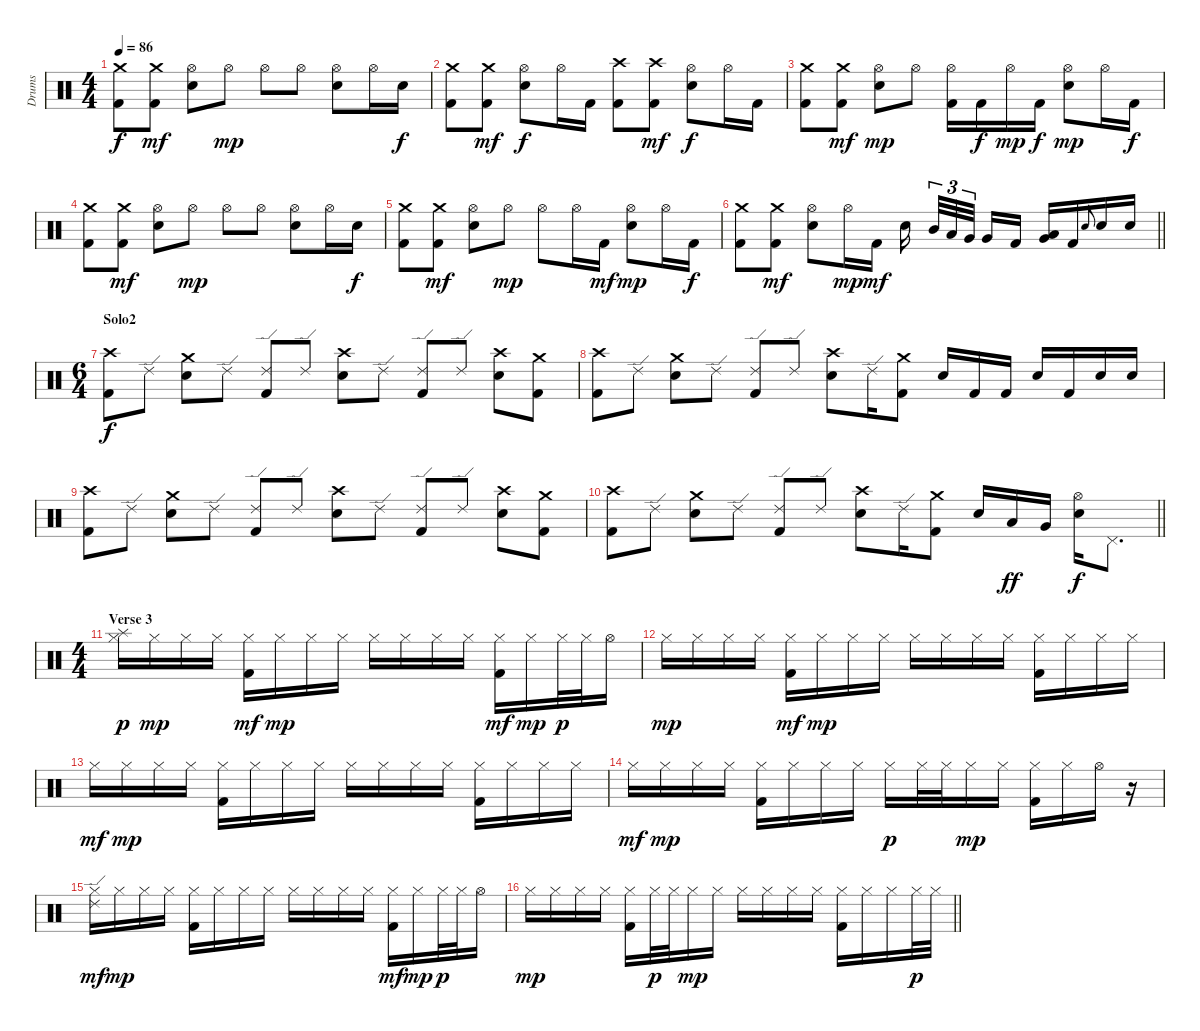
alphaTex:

\track ("Drums" "Drums") {instrument percussion}
\staff {score}
\articulation defaults
\ts (4 4)
\tempo 86
\clef neutral
\ks c
("Crash medium (hit)" "Kick (hit) 2").8{dy f} ("Crash medium (hit)" "Kick (hit) 2").8{dy mf} ("Hi-Hat (open)" "Electric Snare (hit)").8 "Hi-Hat (open)".8{dy mp} "Hi-Hat (open)".8 "Hi-Hat (open)".8 ("Hi-Hat (open)" "Electric Snare (hit)").8 "Hi-Hat (open)".16 "Electric Snare (hit)".16{dy f} |
("Crash medium (hit)" "Kick (hit) 2").8 ("Crash medium (hit)" "Kick (hit) 2").8{dy mf} ("Hi-Hat (open)" "Electric Snare (hit)").8{dy f} "Hi-Hat (open)".16 "Kick (hit) 2".16 ("Crash high (hit)" "Kick (hit) 2").8 ("Crash high (hit)" "Kick (hit) 2").8{dy mf} ("Hi-Hat (open)" "Electric Snare (hit)").8{dy f} "Hi-Hat (open)".16 "Kick (hit) 2".16 |
("Crash medium (hit)" "Kick (hit) 2").8 ("Crash medium (hit)" "Kick (hit) 2").8{dy mf} ("Hi-Hat (open)" "Electric Snare (hit)").8{dy mp} "Hi-Hat (open)".8 ("Hi-Hat (open)" "Kick (hit) 2").16 "Kick (hit) 2".16{dy f} "Hi-Hat (open)".16{dy mp} "Kick (hit) 2".16{dy f} ("Hi-Hat (open)" "Electric Snare (hit)").8{dy mp} "Hi-Hat (open)".16 "Kick (hit) 2".16{dy f} |
("Crash medium (hit)" "Kick (hit) 2").8 ("Crash medium (hit)" "Kick (hit) 2").8{dy mf} ("Hi-Hat (open)" "Electric Snare (hit)").8 "Hi-Hat (open)".8{dy mp} "Hi-Hat (open)".8 "Hi-Hat (open)".8 ("Hi-Hat (open)" "Electric Snare (hit)").8 "Hi-Hat (open)".16 "Electric Snare (hit)".16{dy f} |
("Crash medium (hit)" "Kick (hit) 2").8 ("Crash medium (hit)" "Kick (hit) 2").8{dy mf} ("Hi-Hat (open)" "Electric Snare (hit)").8 "Hi-Hat (open)".8{dy mp} "Hi-Hat (open)".8 "Hi-Hat (open)".16 "Kick (hit) 2".16{dy mf} ("Hi-Hat (open)" "Electric Snare (hit)").8{dy mp} "Hi-Hat (open)".16 "Kick (hit) 2".16{dy f} |
\barLineRight lightlight
("Crash medium (hit)" "Kick (hit) 2").8 ("Crash medium (hit)" "Kick (hit) 2").8{dy mf} ("Hi-Hat (open)" "Electric Snare (hit)").8 "Hi-Hat (open)".16{dy mp} "Kick (hit) 2".16{dy mf} "Electric Snare (hit)".16{beam splitsecondary} "Mid Tom (hit)".32{tu (3 2)} "Low Tom (hit)".32{tu (3 2)} "Very Low Tom (hit)".32{tu (3 2) beam splitsecondary} "Very Low Tom (hit)".16 "Kick (hit) 2".16 ("Very Low Tom (hit)" "Low Floor Tom (hit)").16 "Kick (hit) 2".16 "Electric Snare (hit)"{h}.8{gr onbeat} "Electric Snare (hit)".16 "Electric Snare (hit)".16 |
\ts (6 4)
\section ("" "Solo2")
("Crash high (hit)" "Kick (hit) 2").8{dy f} "Ride (edge) 2".8 ("Crash medium (hit)" "Electric Snare (hit)").8 "Ride (edge) 2".8 ("Ride (edge) 2" "Kick (hit) 2").8 "Ride (edge) 2".8 ("Crash high (hit)" "Electric Snare (hit)").8 "Ride (edge) 2".8 ("Ride (edge) 2" "Kick (hit) 2").8 "Ride (edge) 2".8 ("Crash high (hit)" "Electric Snare (hit)").8 ("Crash medium (hit)" "Kick (hit) 2").8 |
("Crash high (hit)" "Kick (hit) 2").8 "Ride (edge) 2".8 ("Crash medium (hit)" "Electric Snare (hit)").8 "Ride (edge) 2".8 ("Ride (edge) 2" "Kick (hit) 2").8 "Ride (edge) 2".8 ("Crash high (hit)" "Electric Snare (hit)").8 "Ride (edge) 2".16 ("Crash medium (hit)" "Kick (hit) 2").8 "Electric Snare (hit)".16 "Kick (hit) 2".16 "Kick (hit) 2".16 "Electric Snare (hit)".16 "Kick (hit) 2".16 "Electric Snare (hit)".16 "Electric Snare (hit)".16 |
("Crash high (hit)" "Kick (hit) 2").8 "Ride (edge) 2".8 ("Crash medium (hit)" "Electric Snare (hit)").8 "Ride (edge) 2".8 ("Ride (edge) 2" "Kick (hit) 2").8 "Ride (edge) 2".8 ("Crash high (hit)" "Electric Snare (hit)").8 "Ride (edge) 2".8 ("Ride (edge) 2" "Kick (hit) 2").8 "Ride (edge) 2".8 ("Crash high (hit)" "Electric Snare (hit)").8 ("Crash medium (hit)" "Kick (hit) 2").8 |
\barLineRight lightlight
("Crash high (hit)" "Kick (hit) 2").8 "Ride (edge) 2".8 ("Crash medium (hit)" "Electric Snare (hit)").8 "Ride (edge) 2".8 ("Ride (edge) 2" "Kick (hit) 2").8 "Ride (edge) 2".8 ("Crash high (hit)" "Electric Snare (hit)").8 "Ride (edge) 2".16 ("Crash medium (hit)" "Kick (hit) 2").8 "Electric Snare (hit)".16 "Low Tom (hit)".16{dy ff} "Very Low Tom (hit)".16 ("Hi-Hat (open)" "Electric Snare (hit)").16{dy f} "Pedal Hi-Hat (hit)".8{d} |
\ts (4 4)
\section ("" "Verse 3")
("Hi-Hat (closed)" "Splash (hit)").16{dy p} "Hi-Hat (closed)".16{dy mp} "Hi-Hat (closed)".16 "Hi-Hat (closed)".16 ("Hi-Hat (closed)" "Kick (hit) 2").16{dy mf} "Hi-Hat (closed)".16{dy mp} "Hi-Hat (closed)".16 "Hi-Hat (closed)".16 "Hi-Hat (closed)".16 "Hi-Hat (closed)".16 "Hi-Hat (closed)".16 "Hi-Hat (closed)".16 ("Hi-Hat (closed)" "Kick (hit) 2").16{dy mf} "Hi-Hat (closed)".16{dy mp} "Hi-Hat (closed)".32{dy p} "Hi-Hat (closed)".32 "Hi-Hat (open)".16 |
"Hi-Hat (closed)".16{dy mp} "Hi-Hat (closed)".16 "Hi-Hat (closed)".16 "Hi-Hat (closed)".16 ("Hi-Hat (closed)" "Kick (hit) 2").16{dy mf} "Hi-Hat (closed)".16{dy mp} "Hi-Hat (closed)".16 "Hi-Hat (closed)".16 "Hi-Hat (closed)".16 "Hi-Hat (closed)".16 "Hi-Hat (closed)".16 "Hi-Hat (closed)".16 ("Hi-Hat (closed)" "Kick (hit) 2").16 "Hi-Hat (closed)".16 "Hi-Hat (closed)".16 "Hi-Hat (closed)".16 |
"Hi-Hat (closed)".16{dy mf} "Hi-Hat (closed)".16{dy mp} "Hi-Hat (closed)".16 "Hi-Hat (closed)".16 ("Hi-Hat (closed)" "Kick (hit) 2").16 "Hi-Hat (closed)".16 "Hi-Hat (closed)".16 "Hi-Hat (closed)".16 "Hi-Hat (closed)".16 "Hi-Hat (closed)".16 "Hi-Hat (closed)".16 "Hi-Hat (closed)".16 ("Hi-Hat (closed)" "Kick (hit) 2").16 "Hi-Hat (closed)".16 "Hi-Hat (closed)".16 "Hi-Hat (closed)".16 |
"Hi-Hat (closed)".16{dy mf} "Hi-Hat (closed)".16{dy mp} "Hi-Hat (closed)".16 "Hi-Hat (closed)".16 ("Hi-Hat (closed)" "Kick (hit) 2").16 "Hi-Hat (closed)".16 "Hi-Hat (closed)".16 "Hi-Hat (closed)".16 "Hi-Hat (closed)".16{dy p} "Hi-Hat (closed)".32 "Hi-Hat (closed)".32 "Hi-Hat (closed)".16{dy mp} "Hi-Hat (closed)".16 ("Hi-Hat (closed)" "Kick (hit) 2").16 "Hi-Hat (closed)".16 "Hi-Hat (open)".16 r.16 |
("Ride (edge) 2" "Hi-Hat (closed)").16{dy mf} "Hi-Hat (closed)".16{dy mp} "Hi-Hat (closed)".16 "Hi-Hat (closed)".16 ("Hi-Hat (closed)" "Kick (hit) 2").16 "Hi-Hat (closed)".16 "Hi-Hat (closed)".16 "Hi-Hat (closed)".16 "Hi-Hat (closed)".16 "Hi-Hat (closed)".16 "Hi-Hat (closed)".16 "Hi-Hat (closed)".16 ("Hi-Hat (closed)" "Kick (hit) 2").16{dy mf} "Hi-Hat (closed)".16{dy mp} "Hi-Hat (closed)".32{dy p} "Hi-Hat (closed)".32 "Hi-Hat (open)".16 |
\barLineRight lightlight "Hi-Hat (closed)".16{dy mp} "Hi-Hat (closed)".16 "Hi-Hat (closed)".16 "Hi-Hat (closed)".16
("Hi-Hat (closed)" "Kick (hit) 2").16 "Hi-Hat (closed)".32{dy p} "Hi-Hat (closed)".32 "Hi-Hat (closed)".16{dy mp} "Hi-Hat (closed)".16 "Hi-Hat (closed)".16 "Hi-Hat (closed)".16 "Hi-Hat (closed)".16 "Hi-Hat (closed)".16 ("Hi-Hat (closed)" "Kick (hit) 2").16 "Hi-Hat (closed)".16 "Hi-Hat (closed)".16 "Hi-Hat (closed)".32{dy p} "Hi-Hat (closed)".32
